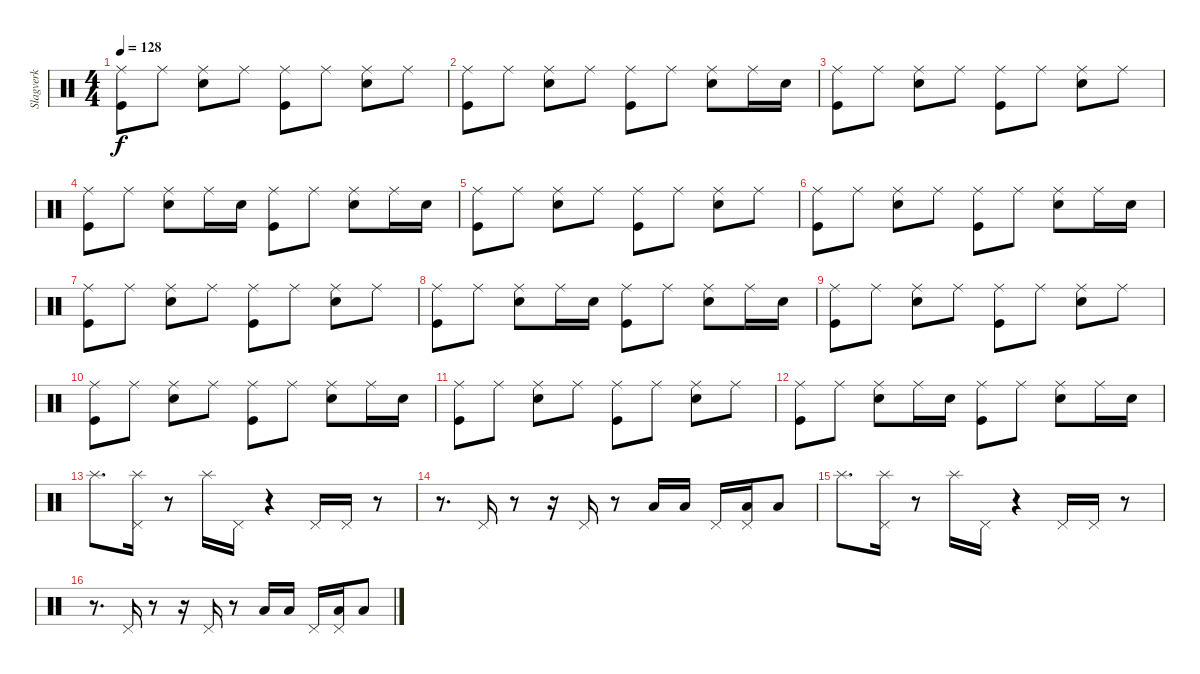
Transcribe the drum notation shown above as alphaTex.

\track ("Slagverk" "Slagverk") {instrument percussion}
\staff {score}
\articulation defaults
\ts (4 4)
\tempo 128
\clef neutral
\ks c
("Kick (hit)" "Ride (middle)").8{dy f} "Ride (middle)".8 ("Snare (hit) 2" "Ride (middle)").8 "Ride (middle)".8 ("Kick (hit)" "Ride (middle)").8 "Ride (middle)".8 ("Snare (hit) 2" "Ride (middle)").8 "Ride (middle)".8 |
("Kick (hit)" "Ride (middle)").8 "Ride (middle)".8 ("Snare (hit) 2" "Ride (middle)").8 "Ride (middle)".8 ("Kick (hit)" "Ride (middle)").8 "Ride (middle)".8 ("Snare (hit) 2" "Ride (middle)").8 "Ride (middle)".16 "Snare (hit) 2".16 |
("Kick (hit)" "Ride (middle)").8 "Ride (middle)".8 ("Snare (hit) 2" "Ride (middle)").8 "Ride (middle)".8 ("Kick (hit)" "Ride (middle)").8 "Ride (middle)".8 ("Snare (hit) 2" "Ride (middle)").8 "Ride (middle)".8 |
("Kick (hit)" "Ride (middle)").8 "Ride (middle)".8 ("Snare (hit) 2" "Ride (middle)").8 "Ride (middle)".16 "Snare (hit) 2".16 ("Kick (hit)" "Ride (middle)").8 "Ride (middle)".8 ("Snare (hit) 2" "Ride (middle)").8 "Ride (middle)".16 "Snare (hit) 2".16 |
("Kick (hit)" "Ride (middle)").8 "Ride (middle)".8 ("Snare (hit) 2" "Ride (middle)").8 "Ride (middle)".8 ("Kick (hit)" "Ride (middle)").8 "Ride (middle)".8 ("Snare (hit) 2" "Ride (middle)").8 "Ride (middle)".8 |
("Kick (hit)" "Ride (middle)").8 "Ride (middle)".8 ("Snare (hit) 2" "Ride (middle)").8 "Ride (middle)".8 ("Kick (hit)" "Ride (middle)").8 "Ride (middle)".8 ("Snare (hit) 2" "Ride (middle)").8 "Ride (middle)".16 "Snare (hit) 2".16 |
("Kick (hit)" "Ride (middle)").8 "Ride (middle)".8 ("Snare (hit) 2" "Ride (middle)").8 "Ride (middle)".8 ("Kick (hit)" "Ride (middle)").8 "Ride (middle)".8 ("Snare (hit) 2" "Ride (middle)").8 "Ride (middle)".8 |
("Kick (hit)" "Ride (middle)").8 "Ride (middle)".8 ("Snare (hit) 2" "Ride (middle)").8 "Ride (middle)".16 "Snare (hit) 2".16 ("Kick (hit)" "Ride (middle)").8 "Ride (middle)".8 ("Snare (hit) 2" "Ride (middle)").8 "Ride (middle)".16 "Snare (hit) 2".16 |
("Kick (hit)" "Ride (middle)").8 "Ride (middle)".8 ("Snare (hit) 2" "Ride (middle)").8 "Ride (middle)".8 ("Kick (hit)" "Ride (middle)").8 "Ride (middle)".8 ("Snare (hit) 2" "Ride (middle)").8 "Ride (middle)".8 |
("Kick (hit)" "Ride (middle)").8 "Ride (middle)".8 ("Snare (hit) 2" "Ride (middle)").8 "Ride (middle)".8 ("Kick (hit)" "Ride (middle)").8 "Ride (middle)".8 ("Snare (hit) 2" "Ride (middle)").8 "Ride (middle)".16 "Snare (hit) 2".16 |
("Kick (hit)" "Ride (middle)").8 "Ride (middle)".8 ("Snare (hit) 2" "Ride (middle)").8 "Ride (middle)".8 ("Kick (hit)" "Ride (middle)").8 "Ride (middle)".8 ("Snare (hit) 2" "Ride (middle)").8 "Ride (middle)".8 |
("Kick (hit)" "Ride (middle)").8 "Ride (middle)".8 ("Snare (hit) 2" "Ride (middle)").8 "Ride (middle)".16 "Snare (hit) 2".16 ("Kick (hit)" "Ride (middle)").8 "Ride (middle)".8 ("Snare (hit) 2" "Ride (middle)").8 "Ride (middle)".16 "Snare (hit) 2".16 |
"Splash (hit)".8{d} ("Pedal Hi-Hat (hit)" "Splash (hit)").16 r.8 "Splash (hit)".16 "Pedal Hi-Hat (hit)".16 r.4 "Pedal Hi-Hat (hit)".16 "Pedal Hi-Hat (hit)".16 r.8 |
r.8{d} "Pedal Hi-Hat (hit)".16 r.8 r.16 "Pedal Hi-Hat (hit)".16 r.8 "Low Floor Tom (hit)".16 "Low Floor Tom (hit)".16 "Pedal Hi-Hat (hit)".16 ("Low Floor Tom (hit)" "Pedal Hi-Hat (hit)").16 "Low Floor Tom (hit)".8 |
"Splash (hit)".8{d} ("Pedal Hi-Hat (hit)" "Splash (hit)").16 r.8 "Splash (hit)".16 "Pedal Hi-Hat (hit)".16 r.4 "Pedal Hi-Hat (hit)".16 "Pedal Hi-Hat (hit)".16 r.8 |
r.8{d} "Pedal Hi-Hat (hit)".16 r.8 r.16 "Pedal Hi-Hat (hit)".16 r.8 "Low Floor Tom (hit)".16 "Low Floor Tom (hit)".16 "Pedal Hi-Hat (hit)".16 ("Low Floor Tom (hit)" "Pedal Hi-Hat (hit)").16 "Low Floor Tom (hit)".8
